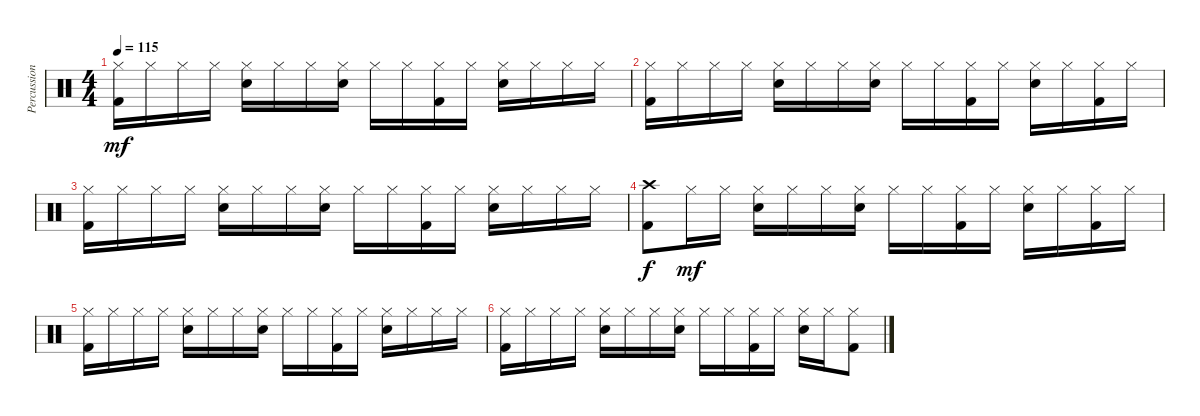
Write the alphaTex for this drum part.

\track ("Percussion" "Percussion") {instrument percussion}
\staff {score}
\articulation defaults
\ts (4 4)
\tempo 115
\clef neutral
\ks c
("Hi-Hat (closed)" "Kick (hit) 2").16{dy mf} "Hi-Hat (closed)".16 "Hi-Hat (closed)".16 "Hi-Hat (closed)".16 ("Hi-Hat (closed)" "Electric Snare (hit)").16 "Hi-Hat (closed)".16 "Hi-Hat (closed)".16 ("Hi-Hat (closed)" "Electric Snare (hit)").16 "Hi-Hat (closed)".16 "Hi-Hat (closed)".16 ("Hi-Hat (closed)" "Kick (hit) 2").16 "Hi-Hat (closed)".16 ("Hi-Hat (closed)" "Electric Snare (hit)").16 "Hi-Hat (closed)".16 "Hi-Hat (closed)".16 "Hi-Hat (closed)".16 |
("Hi-Hat (closed)" "Kick (hit) 2").16 "Hi-Hat (closed)".16 "Hi-Hat (closed)".16 "Hi-Hat (closed)".16 ("Hi-Hat (closed)" "Electric Snare (hit)").16 "Hi-Hat (closed)".16 "Hi-Hat (closed)".16 ("Hi-Hat (closed)" "Electric Snare (hit)").16 "Hi-Hat (closed)".16 "Hi-Hat (closed)".16 ("Hi-Hat (closed)" "Kick (hit) 2").16 "Hi-Hat (closed)".16 ("Hi-Hat (closed)" "Electric Snare (hit)").16 "Hi-Hat (closed)".16 ("Hi-Hat (closed)" "Kick (hit) 2").16 "Hi-Hat (closed)".16 |
("Hi-Hat (closed)" "Kick (hit) 2").16 "Hi-Hat (closed)".16 "Hi-Hat (closed)".16 "Hi-Hat (closed)".16 ("Hi-Hat (closed)" "Electric Snare (hit)").16 "Hi-Hat (closed)".16 "Hi-Hat (closed)".16 ("Hi-Hat (closed)" "Electric Snare (hit)").16 "Hi-Hat (closed)".16 "Hi-Hat (closed)".16 ("Hi-Hat (closed)" "Kick (hit) 2").16 "Hi-Hat (closed)".16 ("Hi-Hat (closed)" "Electric Snare (hit)").16 "Hi-Hat (closed)".16 "Hi-Hat (closed)".16 "Hi-Hat (closed)".16 |
("Crash high (hit)" "Kick (hit) 2").8{dy f} "Hi-Hat (closed)".16{dy mf} "Hi-Hat (closed)".16 ("Hi-Hat (closed)" "Electric Snare (hit)").16 "Hi-Hat (closed)".16 "Hi-Hat (closed)".16 ("Hi-Hat (closed)" "Electric Snare (hit)").16 "Hi-Hat (closed)".16 "Hi-Hat (closed)".16 ("Hi-Hat (closed)" "Kick (hit) 2").16 "Hi-Hat (closed)".16 ("Hi-Hat (closed)" "Electric Snare (hit)").16 "Hi-Hat (closed)".16 ("Hi-Hat (closed)" "Kick (hit) 2").16 "Hi-Hat (closed)".16 |
("Hi-Hat (closed)" "Kick (hit) 2").16 "Hi-Hat (closed)".16 "Hi-Hat (closed)".16 "Hi-Hat (closed)".16 ("Hi-Hat (closed)" "Electric Snare (hit)").16 "Hi-Hat (closed)".16 "Hi-Hat (closed)".16 ("Hi-Hat (closed)" "Electric Snare (hit)").16 "Hi-Hat (closed)".16 "Hi-Hat (closed)".16 ("Hi-Hat (closed)" "Kick (hit) 2").16 "Hi-Hat (closed)".16 ("Hi-Hat (closed)" "Electric Snare (hit)").16 "Hi-Hat (closed)".16 "Hi-Hat (closed)".16 "Hi-Hat (closed)".16 |
("Hi-Hat (closed)" "Kick (hit) 2").16 "Hi-Hat (closed)".16 "Hi-Hat (closed)".16 "Hi-Hat (closed)".16 ("Hi-Hat (closed)" "Electric Snare (hit)").16 "Hi-Hat (closed)".16 "Hi-Hat (closed)".16 ("Hi-Hat (closed)" "Electric Snare (hit)").16 "Hi-Hat (closed)".16 "Hi-Hat (closed)".16 ("Hi-Hat (closed)" "Kick (hit) 2").16 "Hi-Hat (closed)".16 ("Hi-Hat (closed)" "Electric Snare (hit)").16 "Hi-Hat (closed)".16 ("Hi-Hat (closed)" "Kick (hit) 2").8
